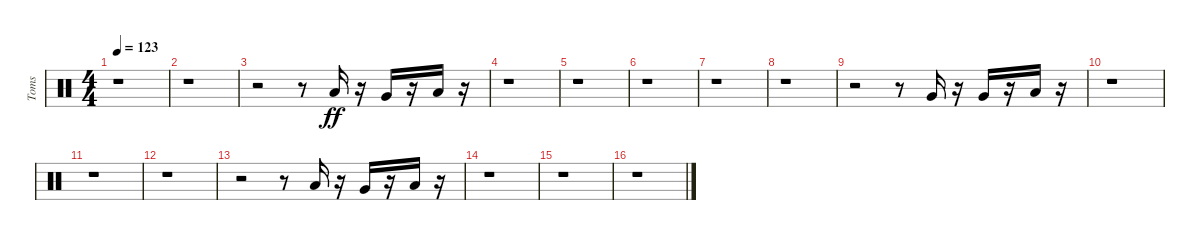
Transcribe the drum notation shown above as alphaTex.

\track ("Toms" "Toms") {instrument percussion}
\staff {score}
\articulation defaults
\ts (4 4)
\tempo 123
\clef neutral
\ks c
r.1{dy ff} |
r.1 |
r.2 r.8 "Low Tom (hit)".16 r.16 "Very Low Tom (hit)".16 r.16 "Low Floor Tom (hit)".16 r.16 |
r.1 |
r.1 |
r.1 |
r.1 |
r.1 |
r.2 r.8 "Very Low Tom (hit)".16 r.16 "Very Low Tom (hit)".16 r.16 "Low Floor Tom (hit)".16 r.16 |
r.1 |
r.1 |
r.1 |
r.2 r.8 "Low Tom (hit)".16 r.16 "Very Low Tom (hit)".16 r.16 "Low Floor Tom (hit)".16 r.16 |
r.1 |
r.1 |
r.1
